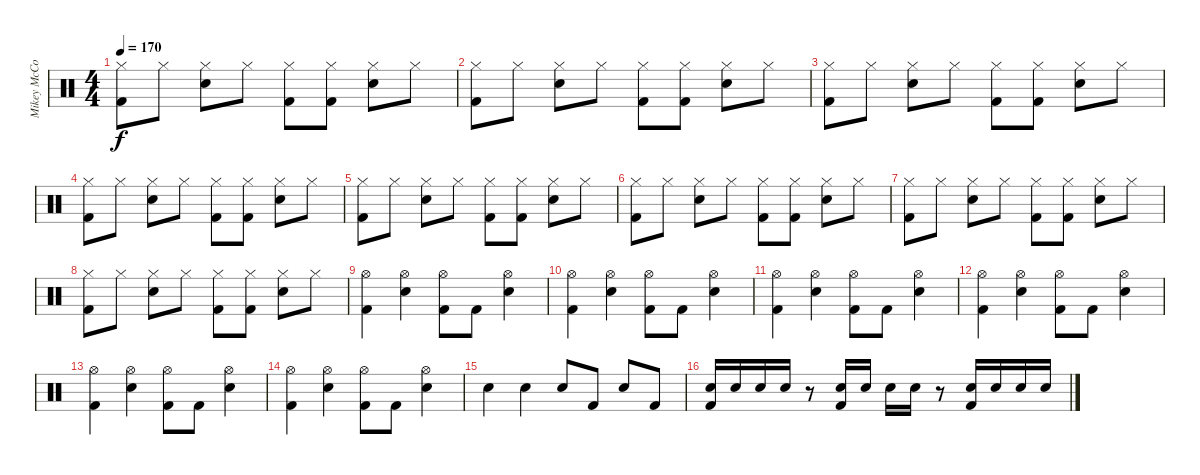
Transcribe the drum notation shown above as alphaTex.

\track ("Mikey McCormack" "Mikey McCo") {instrument percussion}
\staff {score}
\articulation defaults
\ts (4 4)
\tempo 170
\clef neutral
\ks c
("Hi-Hat (closed)" "Kick (hit) 2").8{dy f} "Hi-Hat (closed)".8 ("Hi-Hat (closed)" "Electric Snare (hit)").8 "Hi-Hat (closed)".8 ("Hi-Hat (closed)" "Kick (hit) 2").8 ("Hi-Hat (closed)" "Kick (hit) 2").8 ("Hi-Hat (closed)" "Electric Snare (hit)").8 "Hi-Hat (closed)".8 |
("Hi-Hat (closed)" "Kick (hit) 2").8 "Hi-Hat (closed)".8 ("Hi-Hat (closed)" "Electric Snare (hit)").8 "Hi-Hat (closed)".8 ("Hi-Hat (closed)" "Kick (hit) 2").8 ("Hi-Hat (closed)" "Kick (hit) 2").8 ("Hi-Hat (closed)" "Electric Snare (hit)").8 "Hi-Hat (closed)".8 |
("Hi-Hat (closed)" "Kick (hit) 2").8 "Hi-Hat (closed)".8 ("Hi-Hat (closed)" "Electric Snare (hit)").8 "Hi-Hat (closed)".8 ("Hi-Hat (closed)" "Kick (hit) 2").8 ("Hi-Hat (closed)" "Kick (hit) 2").8 ("Hi-Hat (closed)" "Electric Snare (hit)").8 "Hi-Hat (closed)".8 |
("Hi-Hat (closed)" "Kick (hit) 2").8 "Hi-Hat (closed)".8 ("Hi-Hat (closed)" "Electric Snare (hit)").8 "Hi-Hat (closed)".8 ("Hi-Hat (closed)" "Kick (hit) 2").8 ("Hi-Hat (closed)" "Kick (hit) 2").8 ("Hi-Hat (closed)" "Electric Snare (hit)").8 "Hi-Hat (closed)".8 |
("Hi-Hat (closed)" "Kick (hit) 2").8 "Hi-Hat (closed)".8 ("Hi-Hat (closed)" "Electric Snare (hit)").8 "Hi-Hat (closed)".8 ("Hi-Hat (closed)" "Kick (hit) 2").8 ("Hi-Hat (closed)" "Kick (hit) 2").8 ("Hi-Hat (closed)" "Electric Snare (hit)").8 "Hi-Hat (closed)".8 |
("Hi-Hat (closed)" "Kick (hit) 2").8 "Hi-Hat (closed)".8 ("Hi-Hat (closed)" "Electric Snare (hit)").8 "Hi-Hat (closed)".8 ("Hi-Hat (closed)" "Kick (hit) 2").8 ("Hi-Hat (closed)" "Kick (hit) 2").8 ("Hi-Hat (closed)" "Electric Snare (hit)").8 "Hi-Hat (closed)".8 |
("Hi-Hat (closed)" "Kick (hit) 2").8 "Hi-Hat (closed)".8 ("Hi-Hat (closed)" "Electric Snare (hit)").8 "Hi-Hat (closed)".8 ("Hi-Hat (closed)" "Kick (hit) 2").8 ("Hi-Hat (closed)" "Kick (hit) 2").8 ("Hi-Hat (closed)" "Electric Snare (hit)").8 "Hi-Hat (closed)".8 |
("Hi-Hat (closed)" "Kick (hit) 2").8 "Hi-Hat (closed)".8 ("Hi-Hat (closed)" "Electric Snare (hit)").8 "Hi-Hat (closed)".8 ("Hi-Hat (closed)" "Kick (hit) 2").8 ("Hi-Hat (closed)" "Kick (hit) 2").8 ("Hi-Hat (closed)" "Electric Snare (hit)").8 "Hi-Hat (closed)".8 |
("Hi-Hat (open)" "Kick (hit) 2").4 ("Hi-Hat (open)" "Electric Snare (hit)").4 ("Hi-Hat (open)" "Kick (hit) 2").8 "Kick (hit) 2".8 ("Hi-Hat (open)" "Electric Snare (hit)").4 |
("Hi-Hat (open)" "Kick (hit) 2").4 ("Hi-Hat (open)" "Electric Snare (hit)").4 ("Hi-Hat (open)" "Kick (hit) 2").8 "Kick (hit) 2".8 ("Hi-Hat (open)" "Electric Snare (hit)").4 |
("Hi-Hat (open)" "Kick (hit) 2").4 ("Hi-Hat (open)" "Electric Snare (hit)").4 ("Hi-Hat (open)" "Kick (hit) 2").8 "Kick (hit) 2".8 ("Hi-Hat (open)" "Electric Snare (hit)").4 |
("Hi-Hat (open)" "Kick (hit) 2").4 ("Hi-Hat (open)" "Electric Snare (hit)").4 ("Hi-Hat (open)" "Kick (hit) 2").8 "Kick (hit) 2".8 ("Hi-Hat (open)" "Electric Snare (hit)").4 |
("Hi-Hat (open)" "Kick (hit) 2").4 ("Hi-Hat (open)" "Electric Snare (hit)").4 ("Hi-Hat (open)" "Kick (hit) 2").8 "Kick (hit) 2".8 ("Hi-Hat (open)" "Electric Snare (hit)").4 |
("Hi-Hat (open)" "Kick (hit) 2").4 ("Hi-Hat (open)" "Electric Snare (hit)").4 ("Hi-Hat (open)" "Kick (hit) 2").8 "Kick (hit) 2".8 ("Hi-Hat (open)" "Electric Snare (hit)").4 |
"Electric Snare (hit)".4 "Electric Snare (hit)".4 "Electric Snare (hit)".8 "Kick (hit) 2".8 "Electric Snare (hit)".8 "Kick (hit) 2".8 |
("Electric Snare (hit)" "Kick (hit) 2").16 "Electric Snare (hit)".16 "Electric Snare (hit)".16 "Electric Snare (hit)".16 r.8 ("Electric Snare (hit)" "Kick (hit) 2").16 "Electric Snare (hit)".16 "Electric Snare (hit)".16 "Electric Snare (hit)".16 r.8 ("Electric Snare (hit)" "Kick (hit) 2").16 "Electric Snare (hit)".16 "Electric Snare (hit)".16 "Electric Snare (hit)".16
